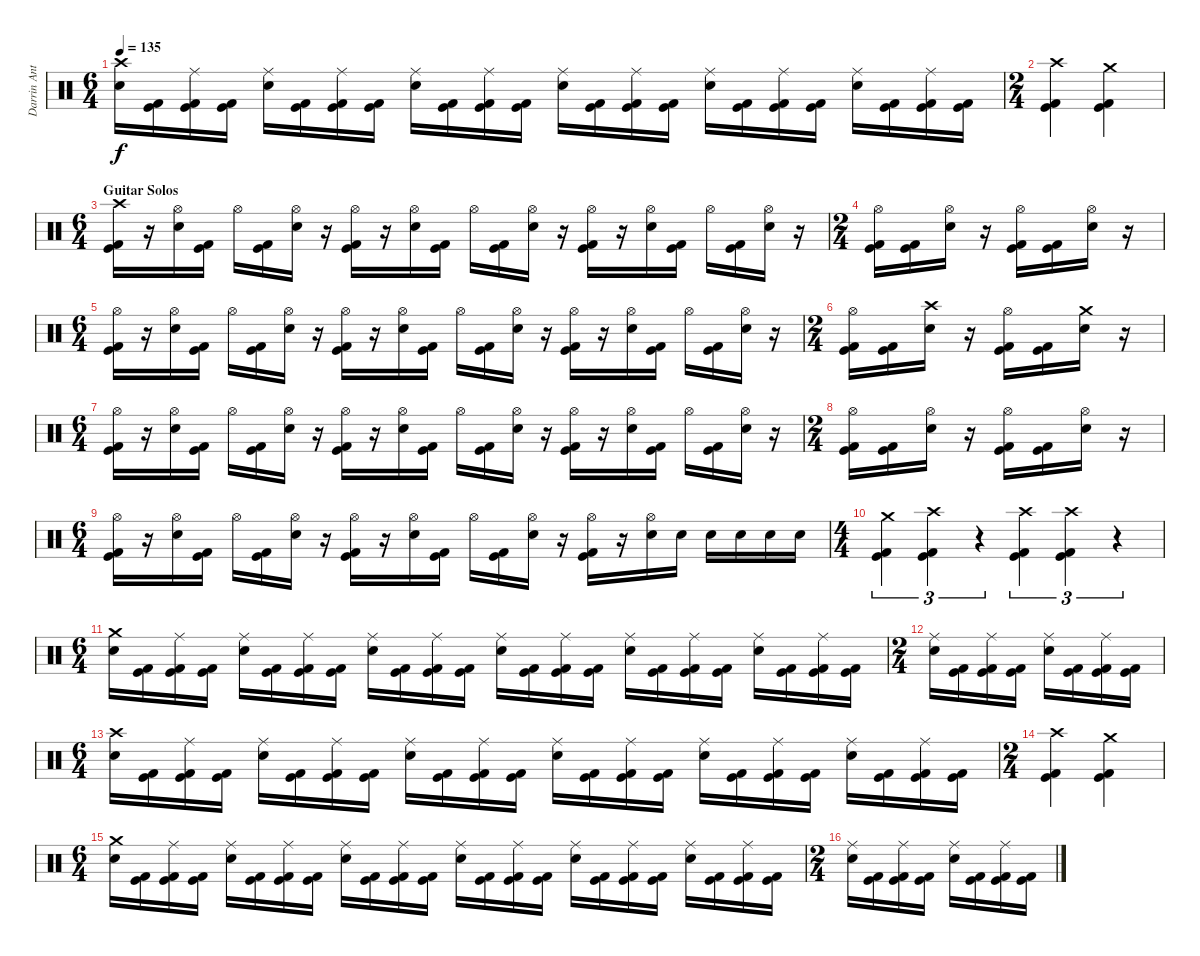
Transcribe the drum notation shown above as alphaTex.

\track ("Darrin Anthony" "Darrin Ant") {instrument percussion}
\staff {score}
\articulation defaults
\ts (6 4)
\tempo 135
\clef neutral
\ks c
("Crash high (hit)" "Electric Snare (hit)").16{dy f} ("Kick (hit)" "Kick (hit) 2").16 ("Ride (middle)" "Kick (hit)" "Kick (hit) 2").16 ("Kick (hit)" "Kick (hit) 2").16 ("Ride (middle)" "Electric Snare (hit)").16 ("Kick (hit)" "Kick (hit) 2").16 ("Ride (middle)" "Kick (hit)" "Kick (hit) 2").16 ("Kick (hit)" "Kick (hit) 2").16 ("Ride (middle)" "Electric Snare (hit)").16 ("Kick (hit)" "Kick (hit) 2").16 ("Ride (middle)" "Kick (hit)" "Kick (hit) 2").16 ("Kick (hit)" "Kick (hit) 2").16 ("Ride (middle)" "Electric Snare (hit)").16 ("Kick (hit)" "Kick (hit) 2").16 ("Ride (middle)" "Kick (hit)" "Kick (hit) 2").16 ("Kick (hit)" "Kick (hit) 2").16 ("Ride (middle)" "Electric Snare (hit)").16 ("Kick (hit)" "Kick (hit) 2").16 ("Ride (middle)" "Kick (hit)" "Kick (hit) 2").16 ("Kick (hit)" "Kick (hit) 2").16 ("Ride (middle)" "Electric Snare (hit)").16 ("Kick (hit)" "Kick (hit) 2").16 ("Ride (middle)" "Kick (hit)" "Kick (hit) 2").16 ("Kick (hit)" "Kick (hit) 2").16 |
\ts (2 4)
("Crash high (hit)" "Kick (hit)" "Kick (hit) 2").4 ("Crash medium (hit)" "Kick (hit)" "Kick (hit) 2").4 |
\ts (6 4)
\section ("" "Guitar Solos")
("Crash high (hit)" "Kick (hit)" "Kick (hit) 2").16 r.16 ("Hi-Hat (open)" "Electric Snare (hit)").16 ("Kick (hit)" "Kick (hit) 2").16 "Hi-Hat (open)".16 ("Kick (hit)" "Kick (hit) 2").16 ("Hi-Hat (open)" "Electric Snare (hit)").16 r.16 ("Hi-Hat (open)" "Kick (hit)" "Kick (hit) 2").16 r.16 ("Hi-Hat (open)" "Electric Snare (hit)").16 ("Kick (hit)" "Kick (hit) 2").16 "Hi-Hat (open)".16 ("Kick (hit)" "Kick (hit) 2").16 ("Hi-Hat (open)" "Electric Snare (hit)").16 r.16 ("Hi-Hat (open)" "Kick (hit)" "Kick (hit) 2").16 r.16 ("Hi-Hat (open)" "Electric Snare (hit)").16 ("Kick (hit)" "Kick (hit) 2").16 "Hi-Hat (open)".16 ("Kick (hit)" "Kick (hit) 2").16 ("Hi-Hat (open)" "Electric Snare (hit)").16 r.16 |
\ts (2 4)
("Hi-Hat (open)" "Kick (hit)" "Kick (hit) 2").16 ("Kick (hit)" "Kick (hit) 2").16 ("Hi-Hat (open)" "Electric Snare (hit)").16 r.16 ("Hi-Hat (open)" "Kick (hit)" "Kick (hit) 2").16 ("Kick (hit)" "Kick (hit) 2").16 ("Hi-Hat (open)" "Electric Snare (hit)").16 r.16 |
\ts (6 4)
("Hi-Hat (open)" "Kick (hit)" "Kick (hit) 2").16 r.16 ("Hi-Hat (open)" "Electric Snare (hit)").16 ("Kick (hit)" "Kick (hit) 2").16 "Hi-Hat (open)".16 ("Kick (hit)" "Kick (hit) 2").16 ("Hi-Hat (open)" "Electric Snare (hit)").16 r.16 ("Hi-Hat (open)" "Kick (hit)" "Kick (hit) 2").16 r.16 ("Hi-Hat (open)" "Electric Snare (hit)").16 ("Kick (hit)" "Kick (hit) 2").16 "Hi-Hat (open)".16 ("Kick (hit)" "Kick (hit) 2").16 ("Hi-Hat (open)" "Electric Snare (hit)").16 r.16 ("Hi-Hat (open)" "Kick (hit)" "Kick (hit) 2").16 r.16 ("Hi-Hat (open)" "Electric Snare (hit)").16 ("Kick (hit)" "Kick (hit) 2").16 "Hi-Hat (open)".16 ("Kick (hit)" "Kick (hit) 2").16 ("Hi-Hat (open)" "Electric Snare (hit)").16 r.16 |
\ts (2 4)
("Hi-Hat (open)" "Kick (hit)" "Kick (hit) 2").16 ("Kick (hit)" "Kick (hit) 2").16 ("Crash high (hit)" "Electric Snare (hit)").16 r.16 ("Hi-Hat (open)" "Kick (hit)" "Kick (hit) 2").16 ("Kick (hit)" "Kick (hit) 2").16 ("Crash medium (hit)" "Electric Snare (hit)").16 r.16 |
\ts (6 4)
("Hi-Hat (open)" "Kick (hit)" "Kick (hit) 2").16 r.16 ("Hi-Hat (open)" "Electric Snare (hit)").16 ("Kick (hit)" "Kick (hit) 2").16 "Hi-Hat (open)".16 ("Kick (hit)" "Kick (hit) 2").16 ("Hi-Hat (open)" "Electric Snare (hit)").16 r.16 ("Hi-Hat (open)" "Kick (hit)" "Kick (hit) 2").16 r.16 ("Hi-Hat (open)" "Electric Snare (hit)").16 ("Kick (hit)" "Kick (hit) 2").16 "Hi-Hat (open)".16 ("Kick (hit)" "Kick (hit) 2").16 ("Hi-Hat (open)" "Electric Snare (hit)").16 r.16 ("Hi-Hat (open)" "Kick (hit)" "Kick (hit) 2").16 r.16 ("Hi-Hat (open)" "Electric Snare (hit)").16 ("Kick (hit)" "Kick (hit) 2").16 "Hi-Hat (open)".16 ("Kick (hit)" "Kick (hit) 2").16 ("Hi-Hat (open)" "Electric Snare (hit)").16 r.16 |
\ts (2 4)
("Hi-Hat (open)" "Kick (hit)" "Kick (hit) 2").16 ("Kick (hit)" "Kick (hit) 2").16 ("Hi-Hat (open)" "Electric Snare (hit)").16 r.16 ("Hi-Hat (open)" "Kick (hit)" "Kick (hit) 2").16 ("Kick (hit)" "Kick (hit) 2").16 ("Hi-Hat (open)" "Electric Snare (hit)").16 r.16 |
\ts (6 4)
("Hi-Hat (open)" "Kick (hit)" "Kick (hit) 2").16 r.16 ("Hi-Hat (open)" "Electric Snare (hit)").16 ("Kick (hit)" "Kick (hit) 2").16 "Hi-Hat (open)".16 ("Kick (hit)" "Kick (hit) 2").16 ("Hi-Hat (open)" "Electric Snare (hit)").16 r.16 ("Hi-Hat (open)" "Kick (hit)" "Kick (hit) 2").16 r.16 ("Hi-Hat (open)" "Electric Snare (hit)").16 ("Kick (hit)" "Kick (hit) 2").16 "Hi-Hat (open)".16 ("Kick (hit)" "Kick (hit) 2").16 ("Hi-Hat (open)" "Electric Snare (hit)").16 r.16 ("Hi-Hat (open)" "Kick (hit)" "Kick (hit) 2").16 r.16 ("Hi-Hat (open)" "Electric Snare (hit)").16 "Electric Snare (hit)".16 "Electric Snare (hit)".16 "Electric Snare (hit)".16 "Electric Snare (hit)".16 "Electric Snare (hit)".16 |
\ts (4 4)
("Crash medium (hit)" "Kick (hit)" "Kick (hit) 2").4{tu (3 2)} ("Crash high (hit)" "Kick (hit)" "Kick (hit) 2").4{tu (3 2)} r.4{tu (3 2)} ("Crash high (hit)" "Kick (hit)" "Kick (hit) 2").4{tu (3 2)} ("Crash high (hit)" "Kick (hit)" "Kick (hit) 2").4{tu (3 2)} r.4{tu (3 2)} |
\ts (6 4)
("Crash medium (hit)" "Electric Snare (hit)").16 ("Kick (hit)" "Kick (hit) 2").16 ("Ride (middle)" "Kick (hit)" "Kick (hit) 2").16 ("Kick (hit)" "Kick (hit) 2").16 ("Ride (middle)" "Electric Snare (hit)").16 ("Kick (hit)" "Kick (hit) 2").16 ("Ride (middle)" "Kick (hit)" "Kick (hit) 2").16 ("Kick (hit)" "Kick (hit) 2").16 ("Ride (middle)" "Electric Snare (hit)").16 ("Kick (hit)" "Kick (hit) 2").16 ("Ride (middle)" "Kick (hit)" "Kick (hit) 2").16 ("Kick (hit)" "Kick (hit) 2").16 ("Ride (middle)" "Electric Snare (hit)").16 ("Kick (hit)" "Kick (hit) 2").16 ("Ride (middle)" "Kick (hit)" "Kick (hit) 2").16 ("Kick (hit)" "Kick (hit) 2").16 ("Ride (middle)" "Electric Snare (hit)").16 ("Kick (hit)" "Kick (hit) 2").16 ("Ride (middle)" "Kick (hit)" "Kick (hit) 2").16 ("Kick (hit)" "Kick (hit) 2").16 ("Ride (middle)" "Electric Snare (hit)").16 ("Kick (hit)" "Kick (hit) 2").16 ("Ride (middle)" "Kick (hit)" "Kick (hit) 2").16 ("Kick (hit)" "Kick (hit) 2").16 |
\ts (2 4)
("Ride (middle)" "Electric Snare (hit)").16 ("Kick (hit)" "Kick (hit) 2").16 ("Ride (middle)" "Kick (hit)" "Kick (hit) 2").16 ("Kick (hit)" "Kick (hit) 2").16 ("Ride (middle)" "Electric Snare (hit)").16 ("Kick (hit)" "Kick (hit) 2").16 ("Ride (middle)" "Kick (hit)" "Kick (hit) 2").16 ("Kick (hit)" "Kick (hit) 2").16 |
\ts (6 4)
("Crash high (hit)" "Electric Snare (hit)").16 ("Kick (hit)" "Kick (hit) 2").16 ("Ride (middle)" "Kick (hit)" "Kick (hit) 2").16 ("Kick (hit)" "Kick (hit) 2").16 ("Ride (middle)" "Electric Snare (hit)").16 ("Kick (hit)" "Kick (hit) 2").16 ("Ride (middle)" "Kick (hit)" "Kick (hit) 2").16 ("Kick (hit)" "Kick (hit) 2").16 ("Ride (middle)" "Electric Snare (hit)").16 ("Kick (hit)" "Kick (hit) 2").16 ("Ride (middle)" "Kick (hit)" "Kick (hit) 2").16 ("Kick (hit)" "Kick (hit) 2").16 ("Ride (middle)" "Electric Snare (hit)").16 ("Kick (hit)" "Kick (hit) 2").16 ("Ride (middle)" "Kick (hit)" "Kick (hit) 2").16 ("Kick (hit)" "Kick (hit) 2").16 ("Ride (middle)" "Electric Snare (hit)").16 ("Kick (hit)" "Kick (hit) 2").16 ("Ride (middle)" "Kick (hit)" "Kick (hit) 2").16 ("Kick (hit)" "Kick (hit) 2").16 ("Ride (middle)" "Electric Snare (hit)").16 ("Kick (hit)" "Kick (hit) 2").16 ("Ride (middle)" "Kick (hit)" "Kick (hit) 2").16 ("Kick (hit)" "Kick (hit) 2").16 |
\ts (2 4)
("Crash high (hit)" "Kick (hit)" "Kick (hit) 2").4 ("Crash medium (hit)" "Kick (hit)" "Kick (hit) 2").4 |
\ts (6 4)
("Crash medium (hit)" "Electric Snare (hit)").16 ("Kick (hit)" "Kick (hit) 2").16 ("Ride (middle)" "Kick (hit)" "Kick (hit) 2").16 ("Kick (hit)" "Kick (hit) 2").16 ("Ride (middle)" "Electric Snare (hit)").16 ("Kick (hit)" "Kick (hit) 2").16 ("Ride (middle)" "Kick (hit)" "Kick (hit) 2").16 ("Kick (hit)" "Kick (hit) 2").16 ("Ride (middle)" "Electric Snare (hit)").16 ("Kick (hit)" "Kick (hit) 2").16 ("Ride (middle)" "Kick (hit)" "Kick (hit) 2").16 ("Kick (hit)" "Kick (hit) 2").16 ("Ride (middle)" "Electric Snare (hit)").16 ("Kick (hit)" "Kick (hit) 2").16 ("Ride (middle)" "Kick (hit)" "Kick (hit) 2").16 ("Kick (hit)" "Kick (hit) 2").16 ("Ride (middle)" "Electric Snare (hit)").16 ("Kick (hit)" "Kick (hit) 2").16 ("Ride (middle)" "Kick (hit)" "Kick (hit) 2").16 ("Kick (hit)" "Kick (hit) 2").16 ("Ride (middle)" "Electric Snare (hit)").16 ("Kick (hit)" "Kick (hit) 2").16 ("Ride (middle)" "Kick (hit)" "Kick (hit) 2").16 ("Kick (hit)" "Kick (hit) 2").16 |
\ts (2 4)
("Ride (middle)" "Electric Snare (hit)").16 ("Kick (hit)" "Kick (hit) 2").16 ("Ride (middle)" "Kick (hit)" "Kick (hit) 2").16 ("Kick (hit)" "Kick (hit) 2").16 ("Ride (middle)" "Electric Snare (hit)").16 ("Kick (hit)" "Kick (hit) 2").16 ("Ride (middle)" "Kick (hit)" "Kick (hit) 2").16 ("Kick (hit)" "Kick (hit) 2").16
